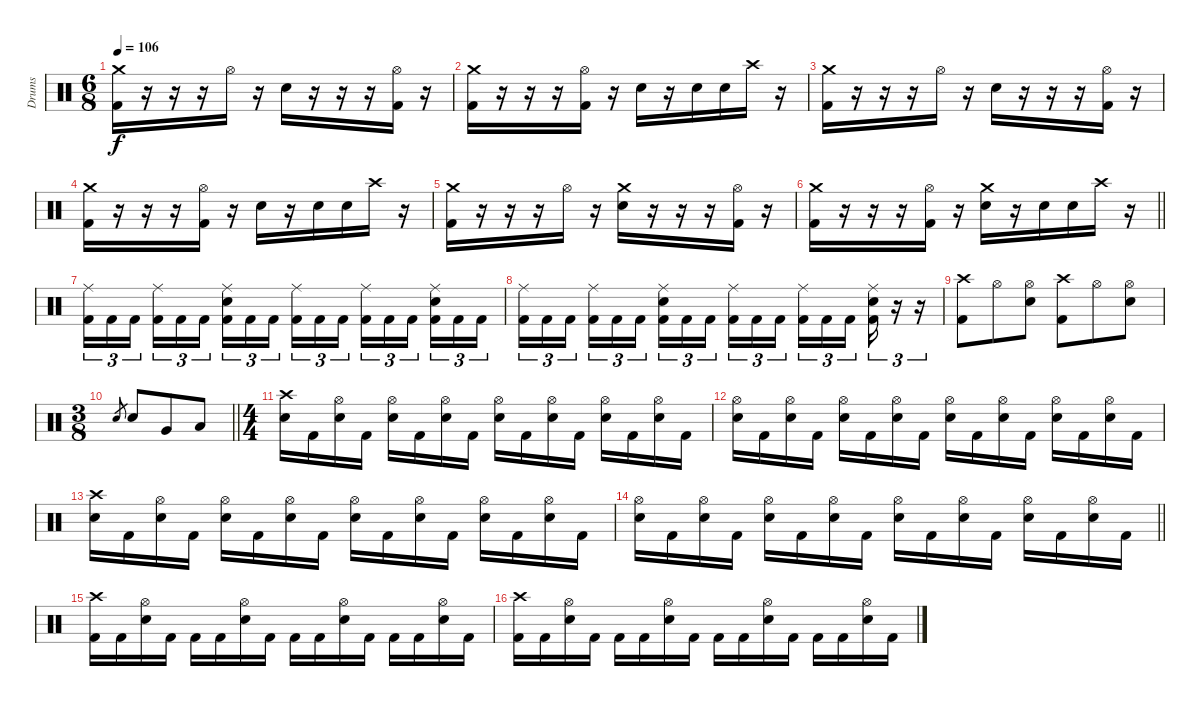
\track ("Drums" "Drums") {instrument percussion}
\staff {score}
\articulation defaults
\ts (6 8)
\tempo 106
\clef neutral
\ks aminor
("Crash medium (hit)" "Kick (hit) 2").16{dy f} r.16 r.16 r.16 "Hi-Hat (open)".16 r.16 "Electric Snare (hit)".16 r.16 r.16 r.16 ("Hi-Hat (open)" "Kick (hit) 2").16 r.16 |
("Crash medium (hit)" "Kick (hit) 2").16 r.16 r.16 r.16 ("Hi-Hat (open)" "Kick (hit) 2").16 r.16 "Electric Snare (hit)".16 r.16 "Electric Snare (hit)".16 "Electric Snare (hit)".16 "Crash high (hit)".16 r.16 |
\section ("" "")
("Crash medium (hit)" "Kick (hit) 2").16 r.16 r.16 r.16 "Hi-Hat (open)".16 r.16 "Electric Snare (hit)".16 r.16 r.16 r.16 ("Hi-Hat (open)" "Kick (hit) 2").16 r.16 |
("Crash medium (hit)" "Kick (hit) 2").16 r.16 r.16 r.16 ("Hi-Hat (open)" "Kick (hit) 2").16 r.16 "Electric Snare (hit)".16 r.16 "Electric Snare (hit)".16 "Electric Snare (hit)".16 "Crash high (hit)".16 r.16 |
("Crash medium (hit)" "Kick (hit) 2").16 r.16 r.16 r.16 "Hi-Hat (open)".16 r.16 ("Crash medium (hit)" "Electric Snare (hit)").16 r.16 r.16 r.16 ("Hi-Hat (open)" "Kick (hit) 2").16 r.16 |
\barLineRight lightlight
("Crash medium (hit)" "Kick (hit) 2").16 r.16 r.16 r.16 ("Hi-Hat (open)" "Kick (hit) 2").16 r.16 ("Crash medium (hit)" "Electric Snare (hit)").16 r.16 "Electric Snare (hit)".16 "Electric Snare (hit)".16 "Crash high (hit)".16 r.16 |
\section ("" "")
("Ride (middle)" "Kick (hit) 2").16{tu (3 2)} "Kick (hit) 2".16{tu (3 2)} "Kick (hit) 2".16{tu (3 2)} ("Ride (middle)" "Kick (hit) 2").16{tu (3 2)} "Kick (hit) 2".16{tu (3 2)} "Kick (hit) 2".16{tu (3 2)} ("Ride (middle)" "Electric Snare (hit)" "Kick (hit) 2").16{tu (3 2)} "Kick (hit) 2".16{tu (3 2)} "Kick (hit) 2".16{tu (3 2)} ("Ride (middle)" "Kick (hit) 2").16{tu (3 2)} "Kick (hit) 2".16{tu (3 2)} "Kick (hit) 2".16{tu (3 2)} ("Ride (middle)" "Kick (hit) 2").16{tu (3 2)} "Kick (hit) 2".16{tu (3 2)} "Kick (hit) 2".16{tu (3 2)} ("Ride (middle)" "Electric Snare (hit)" "Kick (hit) 2").16{tu (3 2)} "Kick (hit) 2".16{tu (3 2)} "Kick (hit) 2".16{tu (3 2)} |
("Ride (middle)" "Kick (hit) 2").16{tu (3 2)} "Kick (hit) 2".16{tu (3 2)} "Kick (hit) 2".16{tu (3 2)} ("Ride (middle)" "Kick (hit) 2").16{tu (3 2)} "Kick (hit) 2".16{tu (3 2)} "Kick (hit) 2".16{tu (3 2)} ("Ride (middle)" "Electric Snare (hit)" "Kick (hit) 2").16{tu (3 2)} "Kick (hit) 2".16{tu (3 2)} "Kick (hit) 2".16{tu (3 2)} ("Ride (middle)" "Kick (hit) 2").16{tu (3 2)} "Kick (hit) 2".16{tu (3 2)} "Kick (hit) 2".16{tu (3 2)} ("Ride (middle)" "Kick (hit) 2").16{tu (3 2)} "Kick (hit) 2".16{tu (3 2)} "Kick (hit) 2".16{tu (3 2)} ("Ride (middle)" "Electric Snare (hit)" "Kick (hit) 2").16{tu (3 2)} r.16{tu (3 2)} r.16{tu (3 2)} |
("Crash high (hit)" "Kick (hit) 2").8 "Hi-Hat (open)".8 ("Hi-Hat (open)" "Electric Snare (hit)").8 ("Crash high (hit)" "Kick (hit) 2").8 "Hi-Hat (open)".8 ("Hi-Hat (open)" "Electric Snare (hit)").8 |
\ts (3 8)
\barLineRight lightlight "Electric Snare (hit)".8{gr} "Electric Snare (hit)".8 "Very Low Tom (hit)".8 "Low Floor Tom (hit)".8
|
\ts (4 4)
\section ("" "")
("Crash high (hit)" "Electric Snare (hit)").16 "Kick (hit) 2".16 ("Hi-Hat (open)" "Electric Snare (hit)").16 "Kick (hit) 2".16 ("Hi-Hat (open)" "Electric Snare (hit)").16 "Kick (hit) 2".16 ("Hi-Hat (open)" "Electric Snare (hit)").16 "Kick (hit) 2".16 ("Hi-Hat (open)" "Electric Snare (hit)").16 "Kick (hit) 2".16 ("Hi-Hat (open)" "Electric Snare (hit)").16 "Kick (hit) 2".16 ("Hi-Hat (open)" "Electric Snare (hit)").16 "Kick (hit) 2".16 ("Hi-Hat (open)" "Electric Snare (hit)").16 "Kick (hit) 2".16 |
("Hi-Hat (open)" "Electric Snare (hit)").16 "Kick (hit) 2".16 ("Hi-Hat (open)" "Electric Snare (hit)").16 "Kick (hit) 2".16 ("Hi-Hat (open)" "Electric Snare (hit)").16 "Kick (hit) 2".16 ("Hi-Hat (open)" "Electric Snare (hit)").16 "Kick (hit) 2".16 ("Hi-Hat (open)" "Electric Snare (hit)").16 "Kick (hit) 2".16 ("Hi-Hat (open)" "Electric Snare (hit)").16 "Kick (hit) 2".16 ("Hi-Hat (open)" "Electric Snare (hit)").16 "Kick (hit) 2".16 ("Hi-Hat (open)" "Electric Snare (hit)").16 "Kick (hit) 2".16 |
("Crash high (hit)" "Electric Snare (hit)").16 "Kick (hit) 2".16 ("Hi-Hat (open)" "Electric Snare (hit)").16 "Kick (hit) 2".16 ("Hi-Hat (open)" "Electric Snare (hit)").16 "Kick (hit) 2".16 ("Hi-Hat (open)" "Electric Snare (hit)").16 "Kick (hit) 2".16 ("Hi-Hat (open)" "Electric Snare (hit)").16 "Kick (hit) 2".16 ("Hi-Hat (open)" "Electric Snare (hit)").16 "Kick (hit) 2".16 ("Hi-Hat (open)" "Electric Snare (hit)").16 "Kick (hit) 2".16 ("Hi-Hat (open)" "Electric Snare (hit)").16 "Kick (hit) 2".16 |
\barLineRight lightlight
("Hi-Hat (open)" "Electric Snare (hit)").16 "Kick (hit) 2".16 ("Hi-Hat (open)" "Electric Snare (hit)").16 "Kick (hit) 2".16 ("Hi-Hat (open)" "Electric Snare (hit)").16 "Kick (hit) 2".16 ("Hi-Hat (open)" "Electric Snare (hit)").16 "Kick (hit) 2".16 ("Hi-Hat (open)" "Electric Snare (hit)").16 "Kick (hit) 2".16 ("Hi-Hat (open)" "Electric Snare (hit)").16 "Kick (hit) 2".16 ("Hi-Hat (open)" "Electric Snare (hit)").16 "Kick (hit) 2".16 ("Hi-Hat (open)" "Electric Snare (hit)").16 "Kick (hit) 2".16 |
\section ("" "")
\ks c
("Crash high (hit)" "Kick (hit) 2").16 "Kick (hit) 2".16 ("Hi-Hat (open)" "Electric Snare (hit)").16 "Kick (hit) 2".16 "Kick (hit) 2".16 "Kick (hit) 2".16 ("Hi-Hat (open)" "Electric Snare (hit)").16 "Kick (hit) 2".16 "Kick (hit) 2".16 "Kick (hit) 2".16 ("Hi-Hat (open)" "Electric Snare (hit)").16 "Kick (hit) 2".16 "Kick (hit) 2".16 "Kick (hit) 2".16 ("Hi-Hat (open)" "Electric Snare (hit)").16 "Kick (hit) 2".16 |
("Crash high (hit)" "Kick (hit) 2").16 "Kick (hit) 2".16 ("Hi-Hat (open)" "Electric Snare (hit)").16 "Kick (hit) 2".16 "Kick (hit) 2".16 "Kick (hit) 2".16 ("Hi-Hat (open)" "Electric Snare (hit)").16 "Kick (hit) 2".16 "Kick (hit) 2".16 "Kick (hit) 2".16 ("Hi-Hat (open)" "Electric Snare (hit)").16 "Kick (hit) 2".16 "Kick (hit) 2".16 "Kick (hit) 2".16 ("Hi-Hat (open)" "Electric Snare (hit)").16 "Kick (hit) 2".16
